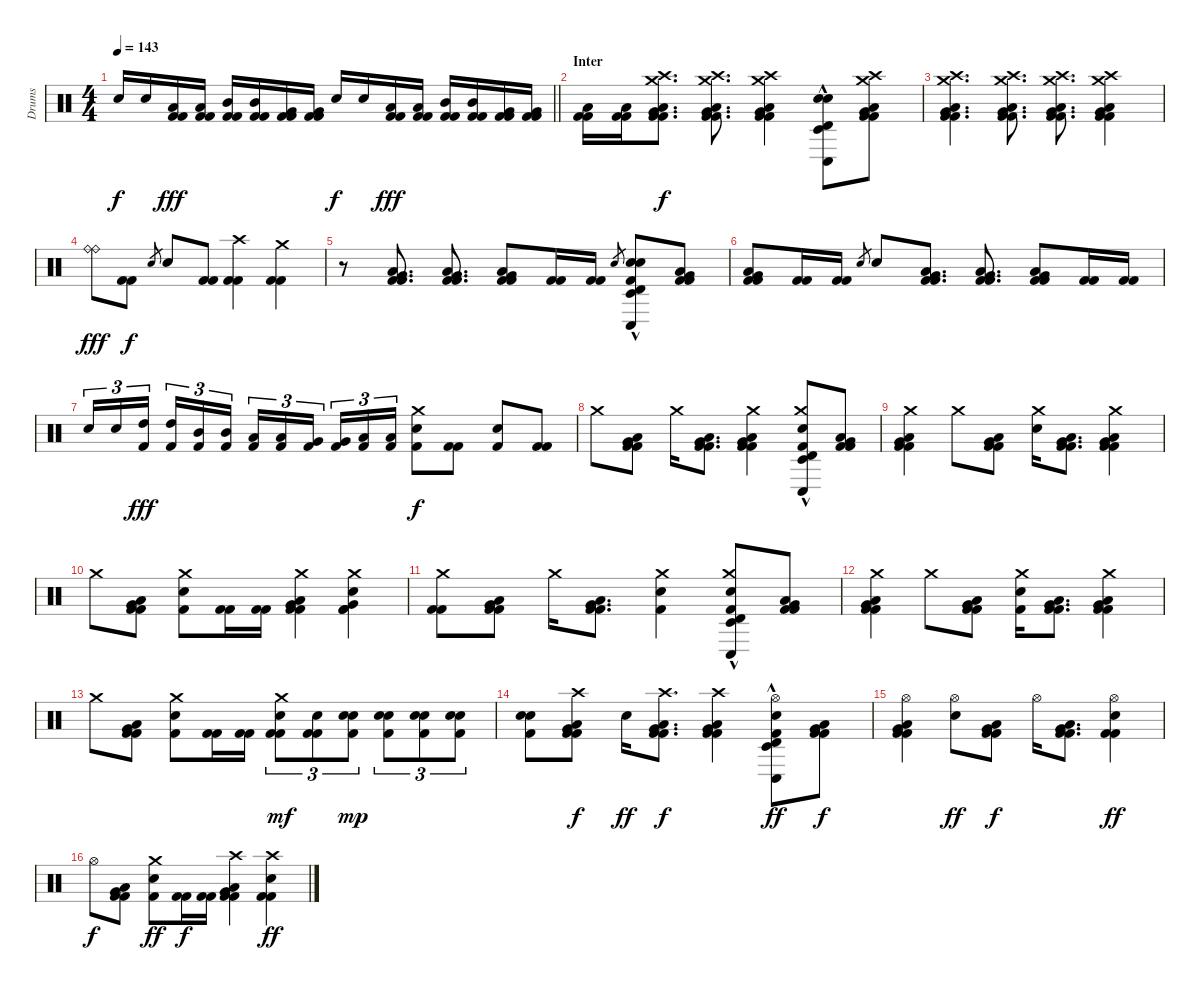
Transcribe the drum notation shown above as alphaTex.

\track ("Drums" "Drums") {instrument percussion}
\staff {score}
\articulation defaults
\ts (4 4)
\tempo 143
\clef neutral
\barLineRight lightlight
\ks c "Electric Snare (hit)".16{dy f} "Electric Snare (hit)".16
("Low Tom (hit)" "Kick (hit) 2" "Kick (hit) 2").16{dy fff} ("Low Tom (hit)" "Kick (hit) 2" "Kick (hit) 2").16 ("Mid Tom (hit)" "Kick (hit) 2" "Kick (hit) 2").16 ("Mid Tom (hit)" "Kick (hit) 2" "Kick (hit) 2").16 ("Very Low Tom (hit)" "Kick (hit) 2" "Kick (hit) 2").16 ("Very Low Tom (hit)" "Kick (hit) 2" "Kick (hit) 2").16 "Electric Snare (hit)".16{dy f} "Electric Snare (hit)".16 ("Low Tom (hit)" "Kick (hit) 2" "Kick (hit) 2").16{dy fff} ("Low Tom (hit)" "Kick (hit) 2" "Kick (hit) 2").16 ("Mid Tom (hit)" "Kick (hit) 2" "Kick (hit) 2").16 ("Mid Tom (hit)" "Kick (hit) 2" "Kick (hit) 2").16 ("Very Low Tom (hit)" "Kick (hit) 2" "Kick (hit) 2").16 ("Very Low Tom (hit)" "Kick (hit) 2" "Kick (hit) 2").16 |
\section ("" "Inter")
("Low Floor Tom (hit)" "Kick (hit) 2" "Kick (hit) 2").16 ("Low Floor Tom (hit)" "Kick (hit) 2" "Kick (hit) 2").16 ("Crash medium (hit)" "Crash high (hit)" "Very Low Tom (hit)" "Low Floor Tom (hit)" "Kick (hit) 2" "Kick (hit) 2").8{d dy f} ("Crash medium (hit)" "Crash high (hit)" "Very Low Tom (hit)" "Low Floor Tom (hit)" "Kick (hit) 2" "Kick (hit) 2").8{d} ("Crash medium (hit)" "Crash high (hit)" "Very Low Tom (hit)" "Low Floor Tom (hit)" "Kick (hit) 2" "Kick (hit) 2").4 ("Timbale low (hit)" "Timbale high (hit)" "Conga low (hit)" "Snare (hit) 2"{hac} "Snare (hit) 2").8 ("Crash medium (hit)" "Crash high (hit)" "Very Low Tom (hit)" "Low Floor Tom (hit)" "Kick (hit) 2" "Kick (hit) 2").8 |
("Crash medium (hit)" "Crash high (hit)" "Very Low Tom (hit)" "Low Floor Tom (hit)" "Kick (hit) 2" "Kick (hit) 2").4{d} ("Crash medium (hit)" "Crash high (hit)" "Very Low Tom (hit)" "Low Floor Tom (hit)" "Kick (hit) 2" "Kick (hit) 2").8{d} ("Crash medium (hit)" "Crash high (hit)" "Very Low Tom (hit)" "Low Floor Tom (hit)" "Kick (hit) 2" "Kick (hit) 2").8{d} ("Crash medium (hit)" "Crash high (hit)" "Very Low Tom (hit)" "Low Floor Tom (hit)" "Kick (hit) 2" "Kick (hit) 2").4 |
("Ride (bell)" "Ride (bell)").8{dy fff} ("Kick (hit) 2" "Kick (hit) 2").8{dy f} "Electric Snare (hit)".8{gr} "Electric Snare (hit)".8 ("Kick (hit) 2" "Kick (hit) 2").8 ("Crash high (hit)" "Kick (hit) 2" "Kick (hit) 2").4 ("Crash medium (hit)" "Kick (hit) 2" "Kick (hit) 2").4 |
r.8 ("Very Low Tom (hit)" "Low Floor Tom (hit)" "Kick (hit) 2" "Kick (hit) 2").8{d} ("Very Low Tom (hit)" "Low Floor Tom (hit)" "Kick (hit) 2" "Kick (hit) 2").8{d} ("Very Low Tom (hit)" "Low Floor Tom (hit)" "Kick (hit) 2" "Kick (hit) 2").8 ("Kick (hit) 2" "Kick (hit) 2").16 ("Kick (hit) 2" "Kick (hit) 2").16 "Electric Snare (hit)".8{gr} ("Timbale low (hit)" "Timbale high (hit)" "Conga low (hit)" "Electric Snare (hit)" "Snare (hit) 2"{hac} "Kick (hit) 2").8 ("Very Low Tom (hit)" "Low Floor Tom (hit)" "Kick (hit) 2" "Kick (hit) 2").8 |
("Very Low Tom (hit)" "Low Floor Tom (hit)" "Kick (hit) 2" "Kick (hit) 2").8 ("Kick (hit) 2" "Kick (hit) 2").16 ("Kick (hit) 2" "Kick (hit) 2").16 "Electric Snare (hit)".8{gr} "Electric Snare (hit)".8 ("Very Low Tom (hit)" "Low Floor Tom (hit)" "Kick (hit) 2" "Kick (hit) 2").8{d} ("Very Low Tom (hit)" "Low Floor Tom (hit)" "Kick (hit) 2" "Kick (hit) 2").8{d} ("Very Low Tom (hit)" "Low Floor Tom (hit)" "Kick (hit) 2" "Kick (hit) 2").8 ("Kick (hit) 2" "Kick (hit) 2").16 ("Kick (hit) 2" "Kick (hit) 2").16 |
"Electric Snare (hit)".16{tu (3 2)} "Electric Snare (hit)".16{tu (3 2)} ("High Tom (hit)" "Kick (hit) 2").16{tu (3 2) dy fff beam splitsecondary} ("High Tom (hit)" "Kick (hit) 2").16{tu (3 2)} ("Mid Tom (hit)" "Kick (hit) 2").16{tu (3 2)} ("Mid Tom (hit)" "Kick (hit) 2").16{tu (3 2)} ("Low Tom (hit)" "Kick (hit) 2").16{tu (3 2)} ("Low Tom (hit)" "Kick (hit) 2").16{tu (3 2)} ("Very Low Tom (hit)" "Kick (hit) 2").16{tu (3 2) beam splitsecondary} ("Very Low Tom (hit)" "Kick (hit) 2").16{tu (3 2)} ("Low Floor Tom (hit)" "Kick (hit) 2").16{tu (3 2)} ("Low Floor Tom (hit)" "Kick (hit) 2").16{tu (3 2)} ("Crash medium (hit)" "Electric Snare (hit)" "Kick (hit) 2").8{dy f} ("Kick (hit) 2" "Kick (hit) 2").8 ("Electric Snare (hit)" "Kick (hit) 2").8 ("Kick (hit) 2" "Kick (hit) 2").8 |
"Crash medium (hit)".8 ("Very Low Tom (hit)" "Low Floor Tom (hit)" "Kick (hit) 2" "Kick (hit) 2").8 "Crash medium (hit)".16 ("Very Low Tom (hit)" "Low Floor Tom (hit)" "Kick (hit) 2" "Kick (hit) 2").8{d} ("Crash medium (hit)" "Very Low Tom (hit)" "Low Floor Tom (hit)" "Kick (hit) 2" "Kick (hit) 2").4 ("Timbale low (hit)" "Timbale high (hit)" "Conga low (hit)" "Crash medium (hit)" "Snare (hit) 2"{hac} "Kick (hit) 2").8 ("Very Low Tom (hit)" "Low Floor Tom (hit)" "Kick (hit) 2" "Kick (hit) 2").8 |
("Crash medium (hit)" "Very Low Tom (hit)" "Low Floor Tom (hit)" "Kick (hit) 2" "Kick (hit) 2").4 "Crash medium (hit)".8 ("Very Low Tom (hit)" "Low Floor Tom (hit)" "Kick (hit) 2" "Kick (hit) 2").8 ("Crash medium (hit)" "Electric Snare (hit)").16 ("Very Low Tom (hit)" "Low Floor Tom (hit)" "Kick (hit) 2" "Kick (hit) 2").8{d} ("Crash medium (hit)" "Very Low Tom (hit)" "Low Floor Tom (hit)" "Kick (hit) 2" "Kick (hit) 2").4 |
"Crash medium (hit)".8 ("Very Low Tom (hit)" "Low Floor Tom (hit)" "Kick (hit) 2" "Kick (hit) 2").8 ("Crash medium (hit)" "Electric Snare (hit)" "Kick (hit) 2").8 ("Kick (hit) 2" "Kick (hit) 2").16 ("Kick (hit) 2" "Kick (hit) 2").16 ("Crash medium (hit)" "Very Low Tom (hit)" "Low Floor Tom (hit)" "Kick (hit) 2" "Kick (hit) 2").4 ("Crash medium (hit)" "Very Low Tom (hit)" "Electric Snare (hit)" "Kick (hit) 2" "Kick (hit) 2").4 |
("Crash medium (hit)" "Kick (hit) 2" "Kick (hit) 2").8 ("Very Low Tom (hit)" "Low Floor Tom (hit)" "Kick (hit) 2" "Kick (hit) 2").8 "Crash medium (hit)".16 ("Very Low Tom (hit)" "Low Floor Tom (hit)" "Kick (hit) 2" "Kick (hit) 2").8{d} ("Crash medium (hit)" "Electric Snare (hit)" "Kick (hit) 2").4 ("Timbale low (hit)" "Timbale high (hit)" "Conga low (hit)" "Crash medium (hit)" "Snare (hit) 2"{hac} "Kick (hit) 2").8 ("Very Low Tom (hit)" "Low Floor Tom (hit)" "Kick (hit) 2" "Kick (hit) 2").8 |
("Crash medium (hit)" "Very Low Tom (hit)" "Low Floor Tom (hit)" "Kick (hit) 2" "Kick (hit) 2").4 "Crash medium (hit)".8 ("Very Low Tom (hit)" "Low Floor Tom (hit)" "Kick (hit) 2" "Kick (hit) 2").8 ("Crash medium (hit)" "Electric Snare (hit)" "Kick (hit) 2").16 ("Very Low Tom (hit)" "Low Floor Tom (hit)" "Kick (hit) 2" "Kick (hit) 2").8{d} ("Crash medium (hit)" "Very Low Tom (hit)" "Low Floor Tom (hit)" "Kick (hit) 2" "Kick (hit) 2").4 |
"Crash medium (hit)".8 ("Very Low Tom (hit)" "Low Floor Tom (hit)" "Kick (hit) 2" "Kick (hit) 2").8 ("Crash medium (hit)" "Electric Snare (hit)" "Kick (hit) 2").8 ("Kick (hit) 2" "Kick (hit) 2").16 ("Kick (hit) 2" "Kick (hit) 2").16 ("Crash medium (hit)" "Electric Snare (hit)" "Kick (hit) 2" "Kick (hit) 2").8{tu (3 2) dy mf} ("Electric Snare (hit)" "Kick (hit) 2" "Kick (hit) 2").8{tu (3 2)} ("Snare (hit) 2" "Electric Snare (hit)" "Kick (hit) 2").8{tu (3 2) dy mp} ("Snare (hit) 2" "Electric Snare (hit)" "Kick (hit) 2").8{tu (3 2)} ("Snare (hit) 2" "Electric Snare (hit)" "Kick (hit) 2").8{tu (3 2)} ("Snare (hit) 2" "Electric Snare (hit)" "Kick (hit) 2").8{tu (3 2)} |
("Snare (hit) 2" "Electric Snare (hit)" "Kick (hit) 2").8 ("Crash high (hit)" "Very Low Tom (hit)" "Low Floor Tom (hit)" "Kick (hit) 2" "Kick (hit) 2").8{dy f} "Electric Snare (hit)".16{dy ff} ("Crash high (hit)" "Very Low Tom (hit)" "Low Floor Tom (hit)" "Kick (hit) 2" "Kick (hit) 2").8{d dy f} ("Crash high (hit)" "Very Low Tom (hit)" "Low Floor Tom (hit)" "Kick (hit) 2" "Kick (hit) 2").4 ("Timbale low (hit)" "Timbale high (hit)" "Conga low (hit)" "Electric Snare (hit)" "Hi-Hat (open)"{hac} "Kick (hit) 2").8{dy ff} ("Very Low Tom (hit)" "Low Floor Tom (hit)" "Kick (hit) 2" "Kick (hit) 2").8{dy f} |
("Hi-Hat (open)" "Very Low Tom (hit)" "Low Floor Tom (hit)" "Kick (hit) 2" "Kick (hit) 2").4 ("Hi-Hat (open)" "Electric Snare (hit)").8{dy ff} ("Very Low Tom (hit)" "Low Floor Tom (hit)" "Kick (hit) 2" "Kick (hit) 2").8{dy f} "Hi-Hat (open)".16 ("Very Low Tom (hit)" "Low Floor Tom (hit)" "Kick (hit) 2" "Kick (hit) 2").8{d} ("Hi-Hat (open)" "Electric Snare (hit)" "Kick (hit) 2" "Kick (hit) 2").4{dy ff} |
"Hi-Hat (open)".8{dy f} ("Very Low Tom (hit)" "Low Floor Tom (hit)" "Kick (hit) 2" "Kick (hit) 2").8 ("Crash medium (hit)" "Electric Snare (hit)" "Kick (hit) 2").8{dy ff} ("Kick (hit) 2" "Kick (hit) 2").16{dy f} ("Kick (hit) 2" "Kick (hit) 2").16 ("Crash high (hit)" "Very Low Tom (hit)" "Low Floor Tom (hit)" "Kick (hit) 2" "Kick (hit) 2").4 ("Crash high (hit)" "Electric Snare (hit)" "Kick (hit) 2" "Kick (hit) 2").4{dy ff}
